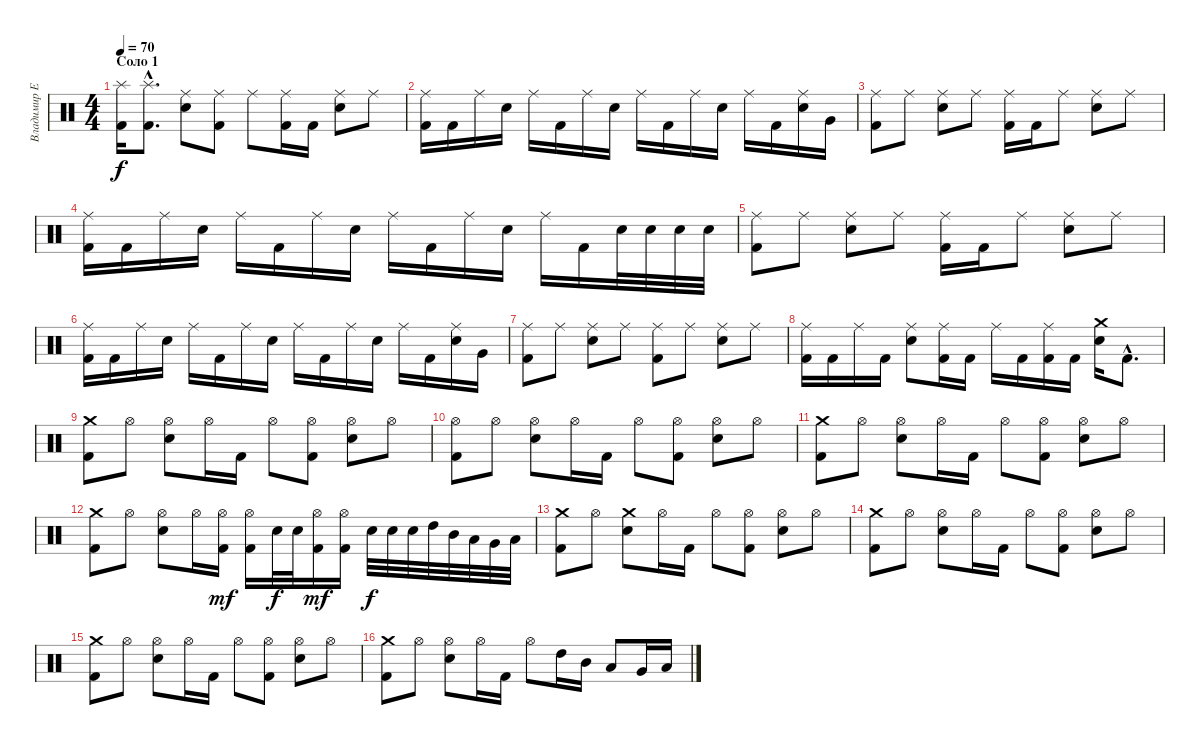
\track ("Владимир Ермаков" "Владимир Е") {instrument percussion}
\staff {score}
\articulation defaults
\ts (4 4)
\section ("" "Соло 1")
\tempo 70
\clef neutral
\ks c
("Splash (hit)" "Kick (hit) 2").16{dy f} ("Splash (hit)"{hac} "Kick (hit) 2"{hac}).8{d} ("Ride (middle)" "Electric Snare (hit)").8 ("Ride (middle)" "Kick (hit) 2").8 "Ride (middle)".8 ("Ride (middle)" "Kick (hit) 2").16 "Kick (hit) 2".16 ("Ride (middle)" "Electric Snare (hit)").8 "Ride (middle)".8 |
("Ride (middle)" "Kick (hit) 2").16 "Kick (hit) 2".16 "Ride (middle)".16 "Electric Snare (hit)".16 "Ride (middle)".16 "Kick (hit) 2".16 "Ride (middle)".16 "Electric Snare (hit)".16 "Ride (middle)".16 "Kick (hit) 2".16 "Ride (middle)".16 "Electric Snare (hit)".16 "Ride (middle)".16 "Kick (hit) 2".16 ("Ride (middle)" "Electric Snare (hit)").16 "Very Low Tom (hit)".16 |
("Ride (middle)" "Kick (hit) 2").8 "Ride (middle)".8 ("Ride (middle)" "Electric Snare (hit)").8 "Ride (middle)".8 ("Ride (middle)" "Kick (hit) 2").16 "Kick (hit) 2".16 "Ride (middle)".8 ("Ride (middle)" "Electric Snare (hit)").8 "Ride (middle)".8 |
("Ride (middle)" "Kick (hit) 2").16 "Kick (hit) 2".16 "Ride (middle)".16 "Electric Snare (hit)".16 "Ride (middle)".16 "Kick (hit) 2".16 "Ride (middle)".16 "Electric Snare (hit)".16 "Ride (middle)".16 "Kick (hit) 2".16 "Ride (middle)".16 "Electric Snare (hit)".16 "Ride (middle)".16 "Kick (hit) 2".16 "Electric Snare (hit)".32 "Electric Snare (hit)".32 "Electric Snare (hit)".32 "Electric Snare (hit)".32 |
("Ride (middle)" "Kick (hit) 2").8 "Ride (middle)".8 ("Ride (middle)" "Electric Snare (hit)").8 "Ride (middle)".8 ("Ride (middle)" "Kick (hit) 2").16 "Kick (hit) 2".16 "Ride (middle)".8 ("Ride (middle)" "Electric Snare (hit)").8 "Ride (middle)".8 |
("Ride (middle)" "Kick (hit) 2").16 "Kick (hit) 2".16 "Ride (middle)".16 "Electric Snare (hit)".16 "Ride (middle)".16 "Kick (hit) 2".16 "Ride (middle)".16 "Electric Snare (hit)".16 "Ride (middle)".16 "Kick (hit) 2".16 "Ride (middle)".16 "Electric Snare (hit)".16 "Ride (middle)".16 "Kick (hit) 2".16 ("Ride (middle)" "Electric Snare (hit)").16 "Very Low Tom (hit)".16 |
("Ride (middle)" "Kick (hit) 2").8 "Ride (middle)".8 ("Ride (middle)" "Electric Snare (hit)").8 "Ride (middle)".8 ("Ride (middle)" "Kick (hit) 2").8 "Ride (middle)".8 ("Ride (middle)" "Electric Snare (hit)").8 "Ride (middle)".8 |
("Ride (middle)" "Kick (hit) 2").16 "Kick (hit) 2".16 "Ride (middle)".16 "Kick (hit) 2".16 ("Ride (middle)" "Electric Snare (hit)").8 ("Ride (middle)" "Kick (hit) 2").16 "Kick (hit) 2".16 "Ride (middle)".16 "Kick (hit) 2".16 ("Ride (middle)" "Kick (hit) 2").16 "Kick (hit) 2".16 ("Crash medium (hit)" "Electric Snare (hit)").16 "Kick (hit) 2"{hac}.8{d} |
("Crash medium (hit)" "Kick (hit) 2").8 "Hi-Hat (open)".8 ("Hi-Hat (open)" "Electric Snare (hit)").8 "Hi-Hat (open)".16 "Kick (hit) 2".16 "Hi-Hat (open)".8 ("Hi-Hat (open)" "Kick (hit) 2").8 ("Hi-Hat (open)" "Electric Snare (hit)").8 "Hi-Hat (open)".8 |
("Hi-Hat (open)" "Kick (hit) 2").8 "Hi-Hat (open)".8 ("Hi-Hat (open)" "Electric Snare (hit)").8 "Hi-Hat (open)".16 "Kick (hit) 2".16 "Hi-Hat (open)".8 ("Hi-Hat (open)" "Kick (hit) 2").8 ("Hi-Hat (open)" "Electric Snare (hit)").8 "Hi-Hat (open)".8 |
("Crash medium (hit)" "Kick (hit) 2").8 "Hi-Hat (open)".8 ("Hi-Hat (open)" "Electric Snare (hit)").8 "Hi-Hat (open)".16 "Kick (hit) 2".16 "Hi-Hat (open)".8 ("Hi-Hat (open)" "Kick (hit) 2").8 ("Hi-Hat (open)" "Electric Snare (hit)").8 "Hi-Hat (open)".8 |
("Crash medium (hit)" "Kick (hit) 2").8 "Hi-Hat (open)".8 ("Hi-Hat (open)" "Electric Snare (hit)").8 "Hi-Hat (open)".16 ("Hi-Hat (open)" "Kick (hit) 2").16{dy mf} ("Hi-Hat (open)" "Kick (hit) 2").16 "Electric Snare (hit)".32{dy f} "Electric Snare (hit)".32 ("Hi-Hat (open)" "Kick (hit) 2").16{dy mf} ("Hi-Hat (open)" "Kick (hit) 2").16 "Electric Snare (hit)".32{dy f} "Electric Snare (hit)".32 "Electric Snare (hit)".32 "High Tom (hit)".32 "Mid Tom (hit)".32 "Low Tom (hit)".32 "Very Low Tom (hit)".32 "Low Floor Tom (hit)".32 |
("Crash medium (hit)" "Kick (hit) 2").8 "Hi-Hat (open)".8 ("Crash medium (hit)" "Electric Snare (hit)").8 "Hi-Hat (open)".16 "Kick (hit) 2".16 "Hi-Hat (open)".8 ("Hi-Hat (open)" "Kick (hit) 2").8 ("Hi-Hat (open)" "Electric Snare (hit)").8 "Hi-Hat (open)".8 |
("Crash medium (hit)" "Kick (hit) 2").8 "Hi-Hat (open)".8 ("Hi-Hat (open)" "Electric Snare (hit)").8 "Hi-Hat (open)".16 "Kick (hit) 2".16 "Hi-Hat (open)".8 ("Hi-Hat (open)" "Kick (hit) 2").8 ("Hi-Hat (open)" "Electric Snare (hit)").8 "Hi-Hat (open)".8 |
("Crash medium (hit)" "Kick (hit) 2").8 "Hi-Hat (open)".8 ("Hi-Hat (open)" "Electric Snare (hit)").8 "Hi-Hat (open)".16 "Kick (hit) 2".16 "Hi-Hat (open)".8 ("Hi-Hat (open)" "Kick (hit) 2").8 ("Hi-Hat (open)" "Electric Snare (hit)").8 "Hi-Hat (open)".8 |
("Crash medium (hit)" "Kick (hit) 2").8 "Hi-Hat (open)".8 ("Hi-Hat (open)" "Electric Snare (hit)").8 "Hi-Hat (open)".16 "Kick (hit) 2".16 "Hi-Hat (open)".8 "High Tom (hit)".16 "Mid Tom (hit)".16 "Low Tom (hit)".8 "Very Low Tom (hit)".16 "Low Floor Tom (hit)".16
